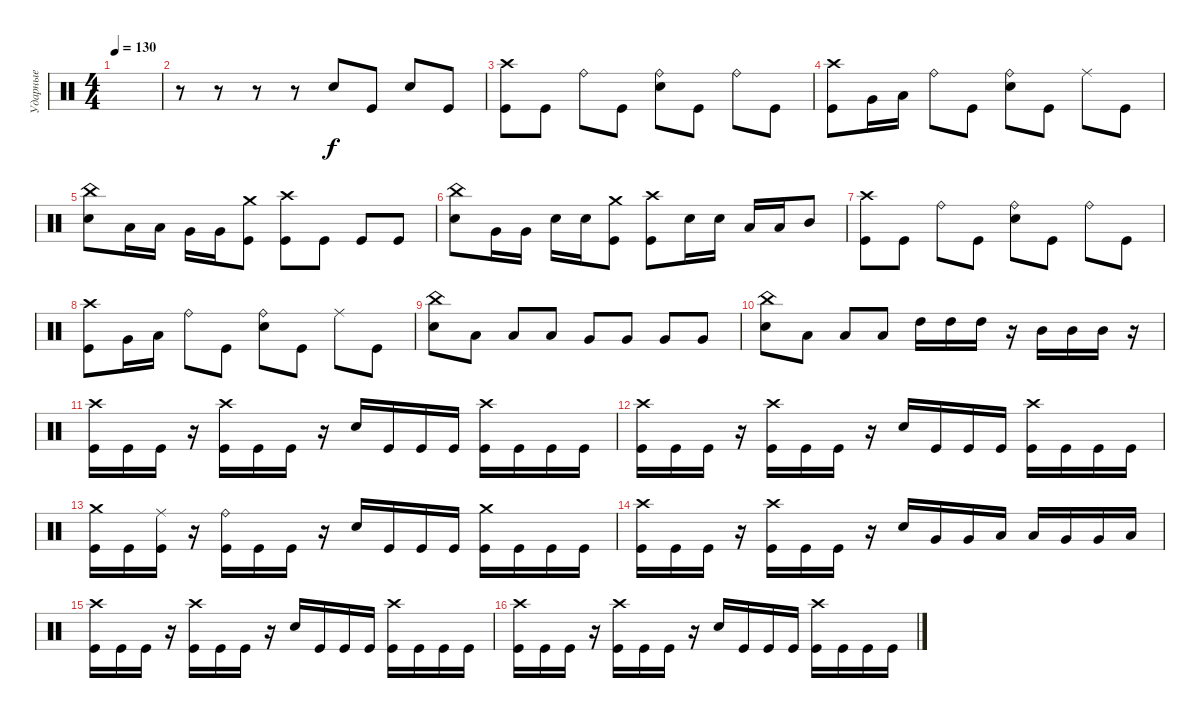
\track ("Ударные" "Ударные") {instrument percussion}
\staff {score}
\articulation defaults
\ts (4 4)
\tempo 130
\clef neutral
\ks c
|
r.8 r.8 r.8 r.8 "Electric Snare (hit)".8 "Kick (hit)".8 "Electric Snare (hit)".8 "Kick (hit)".8 |
("Crash high (hit)" "Kick (hit)").8 "Kick (hit)".8 "Ride (bell)".8 "Kick (hit)".8 ("Ride (bell)" "Electric Snare (hit)").8 "Kick (hit)".8 "Ride (bell)".8 "Kick (hit)".8 |
("Crash high (hit)" "Kick (hit)").8 "Very Low Tom (hit)".16 "Low Tom (hit)".16 "Ride (bell)".8 "Kick (hit)".8 ("Ride (bell)" "Electric Snare (hit)").8 "Kick (hit)".8 "Ride (middle)".8 "Kick (hit)".8 |
("China (hit)" "Electric Snare (hit)").8 "Low Tom (hit)".16 "Low Tom (hit)".16 "Very Low Tom (hit)".16 "Very Low Tom (hit)".16 ("Crash medium (hit)" "Kick (hit)").8 ("Crash high (hit)" "Kick (hit)").8 "Kick (hit)".8 "Kick (hit)".8 "Kick (hit)".8 |
("China (hit)" "Electric Snare (hit)").8 "Very Low Tom (hit)".16 "Very Low Tom (hit)".16 "Electric Snare (hit)".16 "Electric Snare (hit)".16 ("Crash medium (hit)" "Kick (hit)").8 ("Crash high (hit)" "Kick (hit)").8 "Electric Snare (hit)".16 "Electric Snare (hit)".16 "Low Tom (hit)".16 "Low Tom (hit)".16 "Mid Tom (hit)".8 |
("Crash high (hit)" "Kick (hit)").8 "Kick (hit)".8 "Ride (bell)".8 "Kick (hit)".8 ("Ride (bell)" "Electric Snare (hit)").8 "Kick (hit)".8 "Ride (bell)".8 "Kick (hit)".8 |
("Crash high (hit)" "Kick (hit)").8 "Very Low Tom (hit)".16 "Low Tom (hit)".16 "Ride (bell)".8 "Kick (hit)".8 ("Ride (bell)" "Electric Snare (hit)").8 "Kick (hit)".8 "Ride (middle)".8 "Kick (hit)".8 |
("China (hit)" "Electric Snare (hit)").8 "Low Floor Tom (hit)".8 "Low Floor Tom (hit)".8 "Low Floor Tom (hit)".8 "Very Low Tom (hit)".8 "Very Low Tom (hit)".8 "Very Low Tom (hit)".8 "Very Low Tom (hit)".8 |
("China (hit)" "Electric Snare (hit)").8 "Low Tom (hit)".8 "Low Tom (hit)".8 "Low Tom (hit)".8 "High Tom (hit)".16 "High Tom (hit)".16 "High Tom (hit)".16 r.16 "Mid Tom (hit)".16 "Mid Tom (hit)".16 "Mid Tom (hit)".16 r.16 |
("Crash high (hit)" "Kick (hit)").16 "Kick (hit)".16 "Kick (hit)".16 r.16 ("Crash high (hit)" "Kick (hit)").16 "Kick (hit)".16 "Kick (hit)".16 r.16 "Electric Snare (hit)".16 "Kick (hit)".16 "Kick (hit)".16 "Kick (hit)".16 ("Crash high (hit)" "Kick (hit)").16 "Kick (hit)".16 "Kick (hit)".16 "Kick (hit)".16 |
("Crash high (hit)" "Kick (hit)").16 "Kick (hit)".16 "Kick (hit)".16 r.16 ("Crash high (hit)" "Kick (hit)").16 "Kick (hit)".16 "Kick (hit)".16 r.16 "Electric Snare (hit)".16 "Kick (hit)".16 "Kick (hit)".16 "Kick (hit)".16 ("Crash high (hit)" "Kick (hit)").16 "Kick (hit)".16 "Kick (hit)".16 "Kick (hit)".16 |
("Crash medium (hit)" "Kick (hit)").16 "Kick (hit)".16 ("Ride (middle)" "Kick (hit)").16 r.16 ("Ride (bell)" "Kick (hit)").16 "Kick (hit)".16 "Kick (hit)".16 r.16 "Electric Snare (hit)".16 "Kick (hit)".16 "Kick (hit)".16 "Kick (hit)".16 ("Crash medium (hit)" "Kick (hit)").16 "Kick (hit)".16 "Kick (hit)".16 "Kick (hit)".16 |
("Crash high (hit)" "Kick (hit)").16 "Kick (hit)".16 "Kick (hit)".16 r.16 ("Crash high (hit)" "Kick (hit)").16 "Kick (hit)".16 "Kick (hit)".16 r.16 "Electric Snare (hit)".16 "Very Low Tom (hit)".16 "Very Low Tom (hit)".16 "Low Tom (hit)".16 "Low Tom (hit)".16 "Very Low Tom (hit)".16 "Very Low Tom (hit)".16 "Low Floor Tom (hit)".16 |
("Crash high (hit)" "Kick (hit)").16 "Kick (hit)".16 "Kick (hit)".16 r.16 ("Crash high (hit)" "Kick (hit)").16 "Kick (hit)".16 "Kick (hit)".16 r.16 "Electric Snare (hit)".16 "Kick (hit)".16 "Kick (hit)".16 "Kick (hit)".16 ("Crash high (hit)" "Kick (hit)").16 "Kick (hit)".16 "Kick (hit)".16 "Kick (hit)".16 |
("Crash high (hit)" "Kick (hit)").16 "Kick (hit)".16 "Kick (hit)".16 r.16 ("Crash high (hit)" "Kick (hit)").16 "Kick (hit)".16 "Kick (hit)".16 r.16 "Electric Snare (hit)".16 "Kick (hit)".16 "Kick (hit)".16 "Kick (hit)".16 ("Crash high (hit)" "Kick (hit)").16 "Kick (hit)".16 "Kick (hit)".16 "Kick (hit)".16
